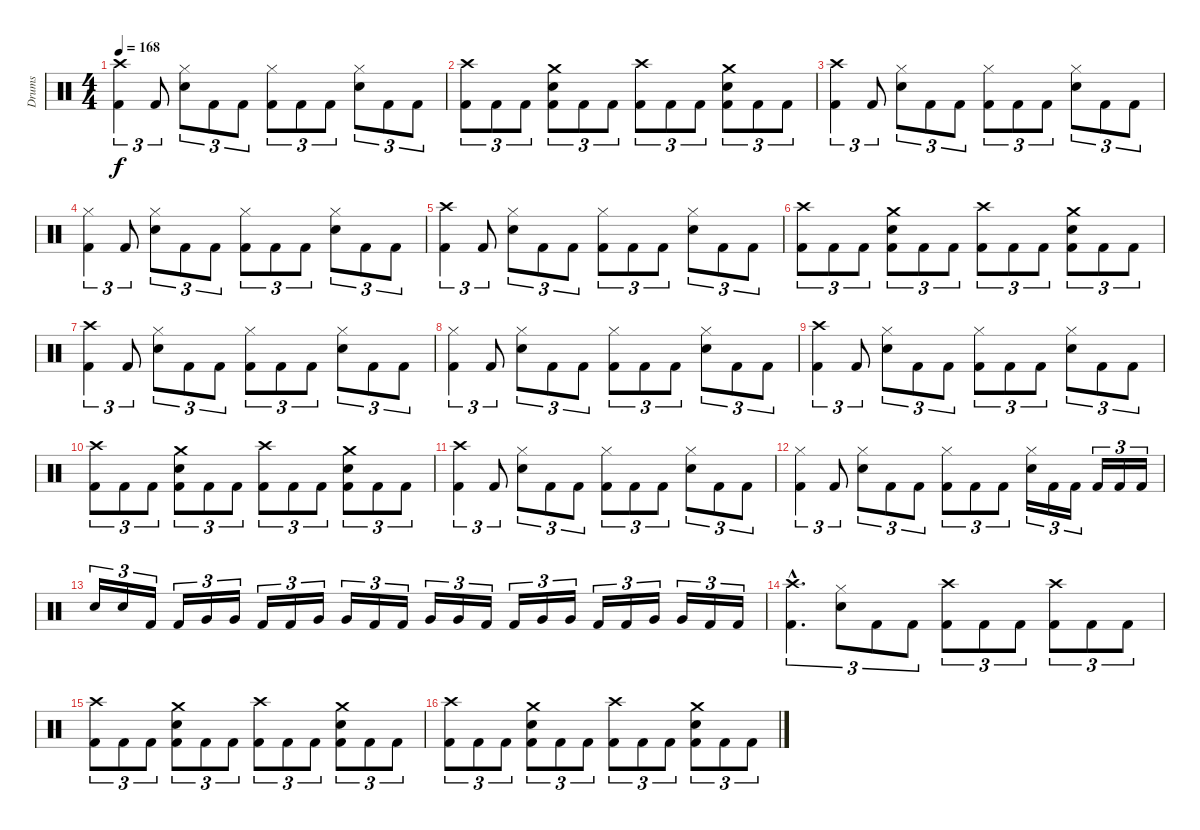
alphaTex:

\track ("Drums" "Drums") {instrument percussion}
\staff {score}
\articulation defaults
\ts (4 4)
\tempo 168
\clef neutral
\ks c
("Kick (hit) 2" "Crash high (hit)").4{tu (3 2) dy f} "Kick (hit) 2".8{tu (3 2)} ("Hi-Hat (closed)" "Electric Snare (hit)").8{tu (3 2)} "Kick (hit) 2".8{tu (3 2)} "Kick (hit) 2".8{tu (3 2)} ("Kick (hit) 2" "Hi-Hat (closed)").8{tu (3 2)} "Kick (hit) 2".8{tu (3 2)} "Kick (hit) 2".8{tu (3 2)} ("Hi-Hat (closed)" "Electric Snare (hit)").8{tu (3 2)} "Kick (hit) 2".8{tu (3 2)} "Kick (hit) 2".8{tu (3 2)} |
("Kick (hit) 2" "Crash high (hit)").8{tu (3 2)} "Kick (hit) 2".8{tu (3 2)} "Kick (hit) 2".8{tu (3 2)} ("Electric Snare (hit)" "Crash medium (hit)" "Kick (hit) 2").8{tu (3 2)} "Kick (hit) 2".8{tu (3 2)} "Kick (hit) 2".8{tu (3 2)} ("Kick (hit) 2" "Crash high (hit)").8{tu (3 2)} "Kick (hit) 2".8{tu (3 2)} "Kick (hit) 2".8{tu (3 2)} ("Electric Snare (hit)" "Crash medium (hit)" "Kick (hit) 2").8{tu (3 2)} "Kick (hit) 2".8{tu (3 2)} "Kick (hit) 2".8{tu (3 2)} |
("Kick (hit) 2" "Crash high (hit)").4{tu (3 2)} "Kick (hit) 2".8{tu (3 2)} ("Hi-Hat (closed)" "Electric Snare (hit)").8{tu (3 2)} "Kick (hit) 2".8{tu (3 2)} "Kick (hit) 2".8{tu (3 2)} ("Kick (hit) 2" "Hi-Hat (closed)").8{tu (3 2)} "Kick (hit) 2".8{tu (3 2)} "Kick (hit) 2".8{tu (3 2)} ("Hi-Hat (closed)" "Electric Snare (hit)").8{tu (3 2)} "Kick (hit) 2".8{tu (3 2)} "Kick (hit) 2".8{tu (3 2)} |
("Kick (hit) 2" "Hi-Hat (closed)").4{tu (3 2)} "Kick (hit) 2".8{tu (3 2)} ("Hi-Hat (closed)" "Electric Snare (hit)").8{tu (3 2)} "Kick (hit) 2".8{tu (3 2)} "Kick (hit) 2".8{tu (3 2)} ("Kick (hit) 2" "Hi-Hat (closed)").8{tu (3 2)} "Kick (hit) 2".8{tu (3 2)} "Kick (hit) 2".8{tu (3 2)} ("Hi-Hat (closed)" "Electric Snare (hit)").8{tu (3 2)} "Kick (hit) 2".8{tu (3 2)} "Kick (hit) 2".8{tu (3 2)} |
("Kick (hit) 2" "Crash high (hit)").4{tu (3 2)} "Kick (hit) 2".8{tu (3 2)} ("Hi-Hat (closed)" "Electric Snare (hit)").8{tu (3 2)} "Kick (hit) 2".8{tu (3 2)} "Kick (hit) 2".8{tu (3 2)} ("Kick (hit) 2" "Hi-Hat (closed)").8{tu (3 2)} "Kick (hit) 2".8{tu (3 2)} "Kick (hit) 2".8{tu (3 2)} ("Hi-Hat (closed)" "Electric Snare (hit)").8{tu (3 2)} "Kick (hit) 2".8{tu (3 2)} "Kick (hit) 2".8{tu (3 2)} |
("Kick (hit) 2" "Crash high (hit)").8{tu (3 2)} "Kick (hit) 2".8{tu (3 2)} "Kick (hit) 2".8{tu (3 2)} ("Electric Snare (hit)" "Crash medium (hit)" "Kick (hit) 2").8{tu (3 2)} "Kick (hit) 2".8{tu (3 2)} "Kick (hit) 2".8{tu (3 2)} ("Kick (hit) 2" "Crash high (hit)").8{tu (3 2)} "Kick (hit) 2".8{tu (3 2)} "Kick (hit) 2".8{tu (3 2)} ("Electric Snare (hit)" "Crash medium (hit)" "Kick (hit) 2").8{tu (3 2)} "Kick (hit) 2".8{tu (3 2)} "Kick (hit) 2".8{tu (3 2)} |
("Kick (hit) 2" "Crash high (hit)").4{tu (3 2)} "Kick (hit) 2".8{tu (3 2)} ("Hi-Hat (closed)" "Electric Snare (hit)").8{tu (3 2)} "Kick (hit) 2".8{tu (3 2)} "Kick (hit) 2".8{tu (3 2)} ("Kick (hit) 2" "Hi-Hat (closed)").8{tu (3 2)} "Kick (hit) 2".8{tu (3 2)} "Kick (hit) 2".8{tu (3 2)} ("Hi-Hat (closed)" "Electric Snare (hit)").8{tu (3 2)} "Kick (hit) 2".8{tu (3 2)} "Kick (hit) 2".8{tu (3 2)} |
("Kick (hit) 2" "Hi-Hat (closed)").4{tu (3 2)} "Kick (hit) 2".8{tu (3 2)} ("Hi-Hat (closed)" "Electric Snare (hit)").8{tu (3 2)} "Kick (hit) 2".8{tu (3 2)} "Kick (hit) 2".8{tu (3 2)} ("Kick (hit) 2" "Hi-Hat (closed)").8{tu (3 2)} "Kick (hit) 2".8{tu (3 2)} "Kick (hit) 2".8{tu (3 2)} ("Hi-Hat (closed)" "Electric Snare (hit)").8{tu (3 2)} "Kick (hit) 2".8{tu (3 2)} "Kick (hit) 2".8{tu (3 2)} |
("Kick (hit) 2" "Crash high (hit)").4{tu (3 2)} "Kick (hit) 2".8{tu (3 2)} ("Hi-Hat (closed)" "Electric Snare (hit)").8{tu (3 2)} "Kick (hit) 2".8{tu (3 2)} "Kick (hit) 2".8{tu (3 2)} ("Kick (hit) 2" "Hi-Hat (closed)").8{tu (3 2)} "Kick (hit) 2".8{tu (3 2)} "Kick (hit) 2".8{tu (3 2)} ("Hi-Hat (closed)" "Electric Snare (hit)").8{tu (3 2)} "Kick (hit) 2".8{tu (3 2)} "Kick (hit) 2".8{tu (3 2)} |
("Kick (hit) 2" "Crash high (hit)").8{tu (3 2)} "Kick (hit) 2".8{tu (3 2)} "Kick (hit) 2".8{tu (3 2)} ("Electric Snare (hit)" "Crash medium (hit)" "Kick (hit) 2").8{tu (3 2)} "Kick (hit) 2".8{tu (3 2)} "Kick (hit) 2".8{tu (3 2)} ("Kick (hit) 2" "Crash high (hit)").8{tu (3 2)} "Kick (hit) 2".8{tu (3 2)} "Kick (hit) 2".8{tu (3 2)} ("Electric Snare (hit)" "Crash medium (hit)" "Kick (hit) 2").8{tu (3 2)} "Kick (hit) 2".8{tu (3 2)} "Kick (hit) 2".8{tu (3 2)} |
("Kick (hit) 2" "Crash high (hit)").4{tu (3 2)} "Kick (hit) 2".8{tu (3 2)} ("Hi-Hat (closed)" "Electric Snare (hit)").8{tu (3 2)} "Kick (hit) 2".8{tu (3 2)} "Kick (hit) 2".8{tu (3 2)} ("Kick (hit) 2" "Hi-Hat (closed)").8{tu (3 2)} "Kick (hit) 2".8{tu (3 2)} "Kick (hit) 2".8{tu (3 2)} ("Hi-Hat (closed)" "Electric Snare (hit)").8{tu (3 2)} "Kick (hit) 2".8{tu (3 2)} "Kick (hit) 2".8{tu (3 2)} |
("Kick (hit) 2" "Hi-Hat (closed)").4{tu (3 2)} "Kick (hit) 2".8{tu (3 2)} ("Hi-Hat (closed)" "Electric Snare (hit)").8{tu (3 2)} "Kick (hit) 2".8{tu (3 2)} "Kick (hit) 2".8{tu (3 2)} ("Kick (hit) 2" "Hi-Hat (closed)").8{tu (3 2)} "Kick (hit) 2".8{tu (3 2)} "Kick (hit) 2".8{tu (3 2)} ("Hi-Hat (closed)" "Electric Snare (hit)").16{tu (3 2)} "Kick (hit) 2".16{tu (3 2)} "Kick (hit) 2".16{tu (3 2)} "Kick (hit) 2".16{tu (3 2)} "Kick (hit) 2".16{tu (3 2)} "Kick (hit) 2".16{tu (3 2)} |
"Electric Snare (hit)".16{tu (3 2)} "Electric Snare (hit)".16{tu (3 2)} "Kick (hit) 2".16{tu (3 2)} "Kick (hit) 2".16{tu (3 2)} "Very Low Tom (hit)".16{tu (3 2) balance 2} "Very Low Tom (hit)".16{tu (3 2)} "Kick (hit) 2".16{tu (3 2) balance 8} "Kick (hit) 2".16{tu (3 2)} "Very Low Tom (hit)".16{tu (3 2) balance 5} "Very Low Tom (hit)".16{tu (3 2)} "Kick (hit) 2".16{tu (3 2) balance 8} "Kick (hit) 2".16{tu (3 2)} "Very Low Tom (hit)".16{tu (3 2) balance 8} "Very Low Tom (hit)".16{tu (3 2)} "Kick (hit) 2".16{tu (3 2) balance 8} "Kick (hit) 2".16{tu (3 2)} "Very Low Tom (hit)".16{tu (3 2) balance 11} "Very Low Tom (hit)".16{tu (3 2)} "Kick (hit) 2".16{tu (3 2) balance 8} "Kick (hit) 2".16{tu (3 2)} "Very Low Tom (hit)".16{tu (3 2) balance 14} "Very Low Tom (hit)".16{tu (3 2)} "Kick (hit) 2".16{tu (3 2)} "Kick (hit) 2".16{tu (3 2)} |
("Kick (hit) 2"{hac} "Crash high (hit)"{hac}).4{d tu (3 2)} ("Electric Snare (hit)" "Hi-Hat (closed)").8{tu (3 2) balance 5} "Kick (hit) 2".8{tu (3 2) balance 8} "Kick (hit) 2".8{tu (3 2)} ("Kick (hit) 2" "Crash high (hit)").8{tu (3 2)} "Kick (hit) 2".8{tu (3 2)} "Kick (hit) 2".8{tu (3 2)} ("Kick (hit) 2" "Crash high (hit)").8{tu (3 2) balance 11} "Kick (hit) 2".8{tu (3 2) balance 8} "Kick (hit) 2".8{tu (3 2)} |
("Kick (hit) 2" "Crash high (hit)").8{tu (3 2)} "Kick (hit) 2".8{tu (3 2)} "Kick (hit) 2".8{tu (3 2)} ("Electric Snare (hit)" "Crash medium (hit)" "Kick (hit) 2").8{tu (3 2)} "Kick (hit) 2".8{tu (3 2)} "Kick (hit) 2".8{tu (3 2)} ("Kick (hit) 2" "Crash high (hit)").8{tu (3 2)} "Kick (hit) 2".8{tu (3 2)} "Kick (hit) 2".8{tu (3 2)} ("Electric Snare (hit)" "Crash medium (hit)" "Kick (hit) 2").8{tu (3 2)} "Kick (hit) 2".8{tu (3 2)} "Kick (hit) 2".8{tu (3 2)} |
("Kick (hit) 2" "Crash high (hit)").8{tu (3 2) balance 5} "Kick (hit) 2".8{tu (3 2) balance 8} "Kick (hit) 2".8{tu (3 2)} ("Electric Snare (hit)" "Crash medium (hit)" "Kick (hit) 2").8{tu (3 2) balance 3} "Kick (hit) 2".8{tu (3 2) balance 8} "Kick (hit) 2".8{tu (3 2)} ("Kick (hit) 2" "Crash high (hit)").8{tu (3 2) balance 11} "Kick (hit) 2".8{tu (3 2) balance 8} "Kick (hit) 2".8{tu (3 2)} ("Electric Snare (hit)" "Crash medium (hit)" "Kick (hit) 2").8{tu (3 2) balance 13} "Kick (hit) 2".8{tu (3 2) balance 8} "Kick (hit) 2".8{tu (3 2)}
